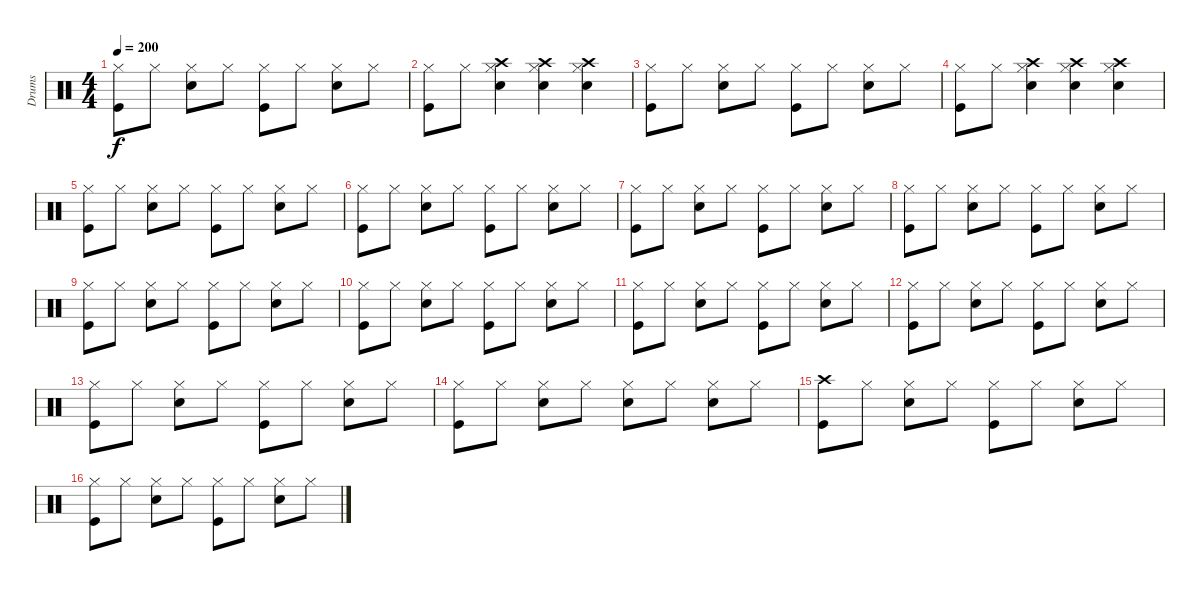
\track ("Drums" "Drums") {instrument percussion}
\staff {score}
\articulation defaults
\ts (4 4)
\tempo 200
\clef neutral
\ks c
("Hi-Hat (closed)" "Kick (hit)").8{dy f} "Hi-Hat (closed)".8 ("Hi-Hat (closed)" "Electric Snare (hit)").8 "Hi-Hat (closed)".8 ("Hi-Hat (closed)" "Kick (hit)").8 "Hi-Hat (closed)".8 ("Hi-Hat (closed)" "Electric Snare (hit)").8 "Hi-Hat (closed)".8 |
("Hi-Hat (closed)" "Kick (hit)").8 "Hi-Hat (closed)".8 ("Hi-Hat (closed)" "Electric Snare (hit)" "Crash high (hit)").4 ("Hi-Hat (closed)" "Electric Snare (hit)" "Crash high (hit)").4 ("Hi-Hat (closed)" "Electric Snare (hit)" "Crash high (hit)").4 |
("Hi-Hat (closed)" "Kick (hit)").8 "Hi-Hat (closed)".8 ("Hi-Hat (closed)" "Electric Snare (hit)").8 "Hi-Hat (closed)".8 ("Hi-Hat (closed)" "Kick (hit)").8 "Hi-Hat (closed)".8 ("Hi-Hat (closed)" "Electric Snare (hit)").8 "Hi-Hat (closed)".8 |
("Hi-Hat (closed)" "Kick (hit)").8 "Hi-Hat (closed)".8 ("Hi-Hat (closed)" "Electric Snare (hit)" "Crash high (hit)").4 ("Hi-Hat (closed)" "Electric Snare (hit)" "Crash high (hit)").4 ("Hi-Hat (closed)" "Electric Snare (hit)" "Crash high (hit)").4 |
("Hi-Hat (closed)" "Kick (hit)").8 "Hi-Hat (closed)".8 ("Hi-Hat (closed)" "Electric Snare (hit)").8 "Hi-Hat (closed)".8 ("Hi-Hat (closed)" "Kick (hit)").8 "Hi-Hat (closed)".8 ("Hi-Hat (closed)" "Electric Snare (hit)").8 "Hi-Hat (closed)".8 |
("Hi-Hat (closed)" "Kick (hit)").8 "Hi-Hat (closed)".8 ("Hi-Hat (closed)" "Electric Snare (hit)").8 "Hi-Hat (closed)".8 ("Hi-Hat (closed)" "Kick (hit)").8 "Hi-Hat (closed)".8 ("Hi-Hat (closed)" "Electric Snare (hit)").8 "Hi-Hat (closed)".8 |
("Hi-Hat (closed)" "Kick (hit)").8 "Hi-Hat (closed)".8 ("Hi-Hat (closed)" "Electric Snare (hit)").8 "Hi-Hat (closed)".8 ("Hi-Hat (closed)" "Kick (hit)").8 "Hi-Hat (closed)".8 ("Hi-Hat (closed)" "Electric Snare (hit)").8 "Hi-Hat (closed)".8 |
("Hi-Hat (closed)" "Kick (hit)").8 "Hi-Hat (closed)".8 ("Hi-Hat (closed)" "Electric Snare (hit)").8 "Hi-Hat (closed)".8 ("Hi-Hat (closed)" "Kick (hit)").8 "Hi-Hat (closed)".8 ("Hi-Hat (closed)" "Electric Snare (hit)").8 "Hi-Hat (closed)".8 |
("Hi-Hat (closed)" "Kick (hit)").8 "Hi-Hat (closed)".8 ("Hi-Hat (closed)" "Electric Snare (hit)").8 "Hi-Hat (closed)".8 ("Hi-Hat (closed)" "Kick (hit)").8 "Hi-Hat (closed)".8 ("Hi-Hat (closed)" "Electric Snare (hit)").8 "Hi-Hat (closed)".8 |
("Hi-Hat (closed)" "Kick (hit)").8 "Hi-Hat (closed)".8 ("Hi-Hat (closed)" "Electric Snare (hit)").8 "Hi-Hat (closed)".8 ("Hi-Hat (closed)" "Kick (hit)").8 "Hi-Hat (closed)".8 ("Hi-Hat (closed)" "Electric Snare (hit)").8 "Hi-Hat (closed)".8 |
("Hi-Hat (closed)" "Kick (hit)").8 "Hi-Hat (closed)".8 ("Hi-Hat (closed)" "Electric Snare (hit)").8 "Hi-Hat (closed)".8 ("Hi-Hat (closed)" "Kick (hit)").8 "Hi-Hat (closed)".8 ("Hi-Hat (closed)" "Electric Snare (hit)").8 "Hi-Hat (closed)".8 |
("Hi-Hat (closed)" "Kick (hit)").8 "Hi-Hat (closed)".8 ("Hi-Hat (closed)" "Electric Snare (hit)").8 "Hi-Hat (closed)".8 ("Hi-Hat (closed)" "Kick (hit)").8 "Hi-Hat (closed)".8 ("Hi-Hat (closed)" "Electric Snare (hit)").8 "Hi-Hat (closed)".8 |
("Hi-Hat (closed)" "Kick (hit)").8 "Hi-Hat (closed)".8 ("Hi-Hat (closed)" "Electric Snare (hit)").8 "Hi-Hat (closed)".8 ("Hi-Hat (closed)" "Kick (hit)").8 "Hi-Hat (closed)".8 ("Hi-Hat (closed)" "Electric Snare (hit)").8 "Hi-Hat (closed)".8 |
("Hi-Hat (closed)" "Kick (hit)").8 "Hi-Hat (closed)".8 ("Hi-Hat (closed)" "Electric Snare (hit)").8 "Hi-Hat (closed)".8 ("Hi-Hat (closed)" "Electric Snare (hit)").8 "Hi-Hat (closed)".8 ("Hi-Hat (closed)" "Electric Snare (hit)").8 "Hi-Hat (closed)".8 |
("Crash high (hit)" "Kick (hit)").8 "Hi-Hat (closed)".8 ("Hi-Hat (closed)" "Electric Snare (hit)").8 "Hi-Hat (closed)".8 ("Hi-Hat (closed)" "Kick (hit)").8 "Hi-Hat (closed)".8 ("Hi-Hat (closed)" "Electric Snare (hit)").8 "Hi-Hat (closed)".8 |
("Hi-Hat (closed)" "Kick (hit)").8 "Hi-Hat (closed)".8 ("Hi-Hat (closed)" "Electric Snare (hit)").8 "Hi-Hat (closed)".8 ("Hi-Hat (closed)" "Kick (hit)").8 "Hi-Hat (closed)".8 ("Hi-Hat (closed)" "Electric Snare (hit)").8 "Hi-Hat (closed)".8
